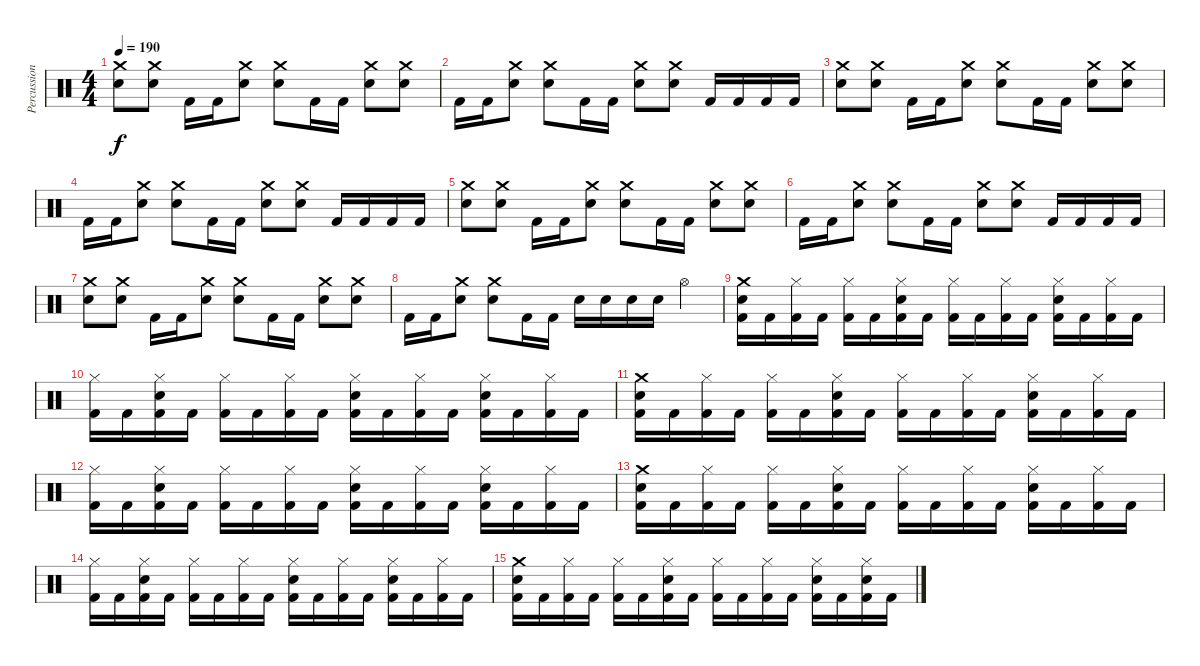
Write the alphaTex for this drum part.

\track ("Percussion" "Percussion") {instrument percussion}
\staff {score}
\articulation defaults
\ts (4 4)
\tempo 190
\clef neutral
\ks c
("Crash medium (hit)" "Snare (hit) 2").8{dy f} ("Crash medium (hit)" "Snare (hit) 2").8 "Kick (hit) 2".16 "Kick (hit) 2".16 ("Crash medium (hit)" "Snare (hit) 2").8 ("Crash medium (hit)" "Snare (hit) 2").8 "Kick (hit) 2".16 "Kick (hit) 2".16 ("Crash medium (hit)" "Snare (hit) 2").8 ("Crash medium (hit)" "Snare (hit) 2").8 |
"Kick (hit) 2".16 "Kick (hit) 2".16 ("Crash medium (hit)" "Snare (hit) 2").8 ("Crash medium (hit)" "Snare (hit) 2").8 "Kick (hit) 2".16 "Kick (hit) 2".16 ("Crash medium (hit)" "Snare (hit) 2").8 ("Crash medium (hit)" "Snare (hit) 2").8 "Kick (hit) 2".16 "Kick (hit) 2".16 "Kick (hit) 2".16 "Kick (hit) 2".16 |
("Crash medium (hit)" "Snare (hit) 2").8 ("Crash medium (hit)" "Snare (hit) 2").8 "Kick (hit) 2".16 "Kick (hit) 2".16 ("Crash medium (hit)" "Snare (hit) 2").8 ("Crash medium (hit)" "Snare (hit) 2").8 "Kick (hit) 2".16 "Kick (hit) 2".16 ("Crash medium (hit)" "Snare (hit) 2").8 ("Crash medium (hit)" "Snare (hit) 2").8 |
"Kick (hit) 2".16 "Kick (hit) 2".16 ("Crash medium (hit)" "Snare (hit) 2").8 ("Crash medium (hit)" "Snare (hit) 2").8 "Kick (hit) 2".16 "Kick (hit) 2".16 ("Crash medium (hit)" "Snare (hit) 2").8 ("Crash medium (hit)" "Snare (hit) 2").8 "Kick (hit) 2".16 "Kick (hit) 2".16 "Kick (hit) 2".16 "Kick (hit) 2".16 |
("Crash medium (hit)" "Snare (hit) 2").8 ("Crash medium (hit)" "Snare (hit) 2").8 "Kick (hit) 2".16 "Kick (hit) 2".16 ("Crash medium (hit)" "Snare (hit) 2").8 ("Crash medium (hit)" "Snare (hit) 2").8 "Kick (hit) 2".16 "Kick (hit) 2".16 ("Crash medium (hit)" "Snare (hit) 2").8 ("Crash medium (hit)" "Snare (hit) 2").8 |
"Kick (hit) 2".16 "Kick (hit) 2".16 ("Crash medium (hit)" "Snare (hit) 2").8 ("Crash medium (hit)" "Snare (hit) 2").8 "Kick (hit) 2".16 "Kick (hit) 2".16 ("Crash medium (hit)" "Snare (hit) 2").8 ("Crash medium (hit)" "Snare (hit) 2").8 "Kick (hit) 2".16 "Kick (hit) 2".16 "Kick (hit) 2".16 "Kick (hit) 2".16 |
("Crash medium (hit)" "Snare (hit) 2").8 ("Crash medium (hit)" "Snare (hit) 2").8 "Kick (hit) 2".16 "Kick (hit) 2".16 ("Crash medium (hit)" "Snare (hit) 2").8 ("Crash medium (hit)" "Snare (hit) 2").8 "Kick (hit) 2".16 "Kick (hit) 2".16 ("Crash medium (hit)" "Snare (hit) 2").8 ("Crash medium (hit)" "Snare (hit) 2").8 |
"Kick (hit) 2".16 "Kick (hit) 2".16 ("Crash medium (hit)" "Snare (hit) 2").8 ("Crash medium (hit)" "Snare (hit) 2").8 "Kick (hit) 2".16 "Kick (hit) 2".16 "Snare (hit) 2".16 "Snare (hit) 2".16 "Snare (hit) 2".16 "Snare (hit) 2".16 "Hi-Hat (open)".4 |
("Crash medium (hit)" "Snare (hit) 2" "Kick (hit) 2").16 "Kick (hit) 2".16 ("Hi-Hat (closed)" "Kick (hit) 2").16 "Kick (hit) 2".16 ("Hi-Hat (closed)" "Kick (hit) 2").16 "Kick (hit) 2".16 ("Hi-Hat (closed)" "Snare (hit) 2" "Kick (hit) 2").16 "Kick (hit) 2".16 ("Hi-Hat (closed)" "Kick (hit) 2").16 "Kick (hit) 2".16 ("Hi-Hat (closed)" "Kick (hit) 2").16 "Kick (hit) 2".16 ("Hi-Hat (closed)" "Snare (hit) 2" "Kick (hit) 2").16 "Kick (hit) 2".16 ("Hi-Hat (closed)" "Kick (hit) 2").16 "Kick (hit) 2".16 |
("Hi-Hat (closed)" "Kick (hit) 2").16 "Kick (hit) 2".16 ("Hi-Hat (closed)" "Snare (hit) 2" "Kick (hit) 2").16 "Kick (hit) 2".16 ("Hi-Hat (closed)" "Kick (hit) 2").16 "Kick (hit) 2".16 ("Hi-Hat (closed)" "Kick (hit) 2").16 "Kick (hit) 2".16 ("Hi-Hat (closed)" "Snare (hit) 2" "Kick (hit) 2").16 "Kick (hit) 2".16 ("Hi-Hat (closed)" "Kick (hit) 2").16 "Kick (hit) 2".16 ("Hi-Hat (closed)" "Snare (hit) 2" "Kick (hit) 2").16 "Kick (hit) 2".16 ("Hi-Hat (closed)" "Kick (hit) 2").16 "Kick (hit) 2".16 |
("Crash medium (hit)" "Snare (hit) 2" "Kick (hit) 2").16 "Kick (hit) 2".16 ("Hi-Hat (closed)" "Kick (hit) 2").16 "Kick (hit) 2".16 ("Hi-Hat (closed)" "Kick (hit) 2").16 "Kick (hit) 2".16 ("Hi-Hat (closed)" "Snare (hit) 2" "Kick (hit) 2").16 "Kick (hit) 2".16 ("Hi-Hat (closed)" "Kick (hit) 2").16 "Kick (hit) 2".16 ("Hi-Hat (closed)" "Kick (hit) 2").16 "Kick (hit) 2".16 ("Hi-Hat (closed)" "Snare (hit) 2" "Kick (hit) 2").16 "Kick (hit) 2".16 ("Hi-Hat (closed)" "Kick (hit) 2").16 "Kick (hit) 2".16 |
("Hi-Hat (closed)" "Kick (hit) 2").16 "Kick (hit) 2".16 ("Hi-Hat (closed)" "Snare (hit) 2" "Kick (hit) 2").16 "Kick (hit) 2".16 ("Hi-Hat (closed)" "Kick (hit) 2").16 "Kick (hit) 2".16 ("Hi-Hat (closed)" "Kick (hit) 2").16 "Kick (hit) 2".16 ("Hi-Hat (closed)" "Snare (hit) 2" "Kick (hit) 2").16 "Kick (hit) 2".16 ("Hi-Hat (closed)" "Kick (hit) 2").16 "Kick (hit) 2".16 ("Hi-Hat (closed)" "Snare (hit) 2" "Kick (hit) 2").16 "Kick (hit) 2".16 ("Hi-Hat (closed)" "Kick (hit) 2").16 "Kick (hit) 2".16 |
("Crash medium (hit)" "Snare (hit) 2" "Kick (hit) 2").16 "Kick (hit) 2".16 ("Hi-Hat (closed)" "Kick (hit) 2").16 "Kick (hit) 2".16 ("Hi-Hat (closed)" "Kick (hit) 2").16 "Kick (hit) 2".16 ("Hi-Hat (closed)" "Snare (hit) 2" "Kick (hit) 2").16 "Kick (hit) 2".16 ("Hi-Hat (closed)" "Kick (hit) 2").16 "Kick (hit) 2".16 ("Hi-Hat (closed)" "Kick (hit) 2").16 "Kick (hit) 2".16 ("Hi-Hat (closed)" "Snare (hit) 2" "Kick (hit) 2").16 "Kick (hit) 2".16 ("Hi-Hat (closed)" "Kick (hit) 2").16 "Kick (hit) 2".16 |
("Hi-Hat (closed)" "Kick (hit) 2").16 "Kick (hit) 2".16 ("Hi-Hat (closed)" "Snare (hit) 2" "Kick (hit) 2").16 "Kick (hit) 2".16 ("Hi-Hat (closed)" "Kick (hit) 2").16 "Kick (hit) 2".16 ("Hi-Hat (closed)" "Kick (hit) 2").16 "Kick (hit) 2".16 ("Hi-Hat (closed)" "Snare (hit) 2" "Kick (hit) 2").16 "Kick (hit) 2".16 ("Hi-Hat (closed)" "Kick (hit) 2").16 "Kick (hit) 2".16 ("Hi-Hat (closed)" "Snare (hit) 2" "Kick (hit) 2").16 "Kick (hit) 2".16 ("Hi-Hat (closed)" "Kick (hit) 2").16 "Kick (hit) 2".16 |
("Crash medium (hit)" "Snare (hit) 2" "Kick (hit) 2").16 "Kick (hit) 2".16 ("Hi-Hat (closed)" "Kick (hit) 2").16 "Kick (hit) 2".16 ("Hi-Hat (closed)" "Kick (hit) 2").16 "Kick (hit) 2".16 ("Hi-Hat (closed)" "Snare (hit) 2" "Kick (hit) 2").16 "Kick (hit) 2".16 ("Hi-Hat (closed)" "Kick (hit) 2").16 "Kick (hit) 2".16 ("Hi-Hat (closed)" "Kick (hit) 2").16 "Kick (hit) 2".16 ("Hi-Hat (closed)" "Snare (hit) 2" "Kick (hit) 2").16 "Kick (hit) 2".16 ("Hi-Hat (closed)" "Snare (hit) 2" "Kick (hit) 2").16 "Kick (hit) 2".16
